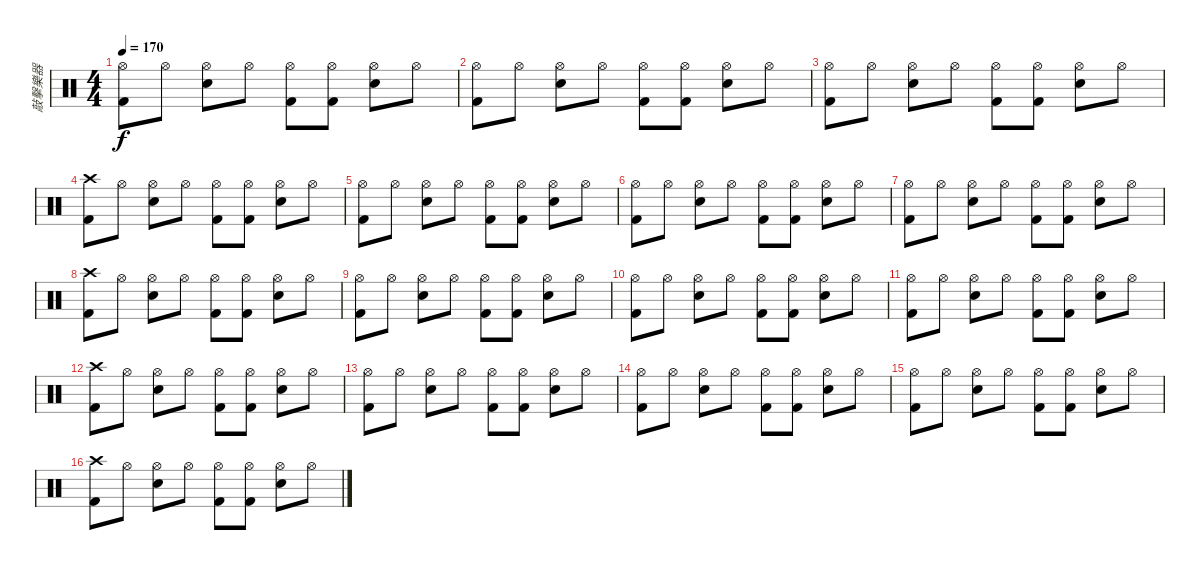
\track ("敲擊樂器" "敲擊樂器") {instrument percussion}
\staff {score}
\articulation defaults
\ts (4 4)
\tempo 170
\clef neutral
\ks c
("Hi-Hat (open)" "Kick (hit) 2").8{dy f} "Hi-Hat (open)".8 ("Hi-Hat (open)" "Snare (hit) 2").8 "Hi-Hat (open)".8 ("Hi-Hat (open)" "Kick (hit) 2").8 ("Hi-Hat (open)" "Kick (hit) 2").8 ("Hi-Hat (open)" "Snare (hit) 2").8 "Hi-Hat (open)".8 |
("Hi-Hat (open)" "Kick (hit) 2").8 "Hi-Hat (open)".8 ("Hi-Hat (open)" "Snare (hit) 2").8 "Hi-Hat (open)".8 ("Hi-Hat (open)" "Kick (hit) 2").8 ("Hi-Hat (open)" "Kick (hit) 2").8 ("Hi-Hat (open)" "Snare (hit) 2").8 "Hi-Hat (open)".8 |
("Hi-Hat (open)" "Kick (hit) 2").8 "Hi-Hat (open)".8 ("Hi-Hat (open)" "Snare (hit) 2").8 "Hi-Hat (open)".8 ("Hi-Hat (open)" "Kick (hit) 2").8 ("Hi-Hat (open)" "Kick (hit) 2").8 ("Hi-Hat (open)" "Snare (hit) 2").8 "Hi-Hat (open)".8 |
("Crash high (hit)" "Kick (hit) 2").8 "Hi-Hat (open)".8 ("Hi-Hat (open)" "Snare (hit) 2").8 "Hi-Hat (open)".8 ("Hi-Hat (open)" "Kick (hit) 2").8 ("Hi-Hat (open)" "Kick (hit) 2").8 ("Hi-Hat (open)" "Snare (hit) 2").8 "Hi-Hat (open)".8 |
("Hi-Hat (open)" "Kick (hit) 2").8 "Hi-Hat (open)".8 ("Hi-Hat (open)" "Snare (hit) 2").8 "Hi-Hat (open)".8 ("Hi-Hat (open)" "Kick (hit) 2").8 ("Hi-Hat (open)" "Kick (hit) 2").8 ("Hi-Hat (open)" "Snare (hit) 2").8 "Hi-Hat (open)".8 |
("Hi-Hat (open)" "Kick (hit) 2").8 "Hi-Hat (open)".8 ("Hi-Hat (open)" "Snare (hit) 2").8 "Hi-Hat (open)".8 ("Hi-Hat (open)" "Kick (hit) 2").8 ("Hi-Hat (open)" "Kick (hit) 2").8 ("Hi-Hat (open)" "Snare (hit) 2").8 "Hi-Hat (open)".8 |
("Hi-Hat (open)" "Kick (hit) 2").8 "Hi-Hat (open)".8 ("Hi-Hat (open)" "Snare (hit) 2").8 "Hi-Hat (open)".8 ("Hi-Hat (open)" "Kick (hit) 2").8 ("Hi-Hat (open)" "Kick (hit) 2").8 ("Hi-Hat (open)" "Snare (hit) 2").8 "Hi-Hat (open)".8 |
("Crash high (hit)" "Kick (hit) 2").8 "Hi-Hat (open)".8 ("Hi-Hat (open)" "Snare (hit) 2").8 "Hi-Hat (open)".8 ("Hi-Hat (open)" "Kick (hit) 2").8 ("Hi-Hat (open)" "Kick (hit) 2").8 ("Hi-Hat (open)" "Snare (hit) 2").8 "Hi-Hat (open)".8 |
("Hi-Hat (open)" "Kick (hit) 2").8 "Hi-Hat (open)".8 ("Hi-Hat (open)" "Snare (hit) 2").8 "Hi-Hat (open)".8 ("Hi-Hat (open)" "Kick (hit) 2").8 ("Hi-Hat (open)" "Kick (hit) 2").8 ("Hi-Hat (open)" "Snare (hit) 2").8 "Hi-Hat (open)".8 |
("Hi-Hat (open)" "Kick (hit) 2").8 "Hi-Hat (open)".8 ("Hi-Hat (open)" "Snare (hit) 2").8 "Hi-Hat (open)".8 ("Hi-Hat (open)" "Kick (hit) 2").8 ("Hi-Hat (open)" "Kick (hit) 2").8 ("Hi-Hat (open)" "Snare (hit) 2").8 "Hi-Hat (open)".8 |
("Hi-Hat (open)" "Kick (hit) 2").8 "Hi-Hat (open)".8 ("Hi-Hat (open)" "Snare (hit) 2").8 "Hi-Hat (open)".8 ("Hi-Hat (open)" "Kick (hit) 2").8 ("Hi-Hat (open)" "Kick (hit) 2").8 ("Hi-Hat (open)" "Snare (hit) 2").8 "Hi-Hat (open)".8 |
("Crash high (hit)" "Kick (hit) 2").8 "Hi-Hat (open)".8 ("Hi-Hat (open)" "Snare (hit) 2").8 "Hi-Hat (open)".8 ("Hi-Hat (open)" "Kick (hit) 2").8 ("Hi-Hat (open)" "Kick (hit) 2").8 ("Hi-Hat (open)" "Snare (hit) 2").8 "Hi-Hat (open)".8 |
("Hi-Hat (open)" "Kick (hit) 2").8 "Hi-Hat (open)".8 ("Hi-Hat (open)" "Snare (hit) 2").8 "Hi-Hat (open)".8 ("Hi-Hat (open)" "Kick (hit) 2").8 ("Hi-Hat (open)" "Kick (hit) 2").8 ("Hi-Hat (open)" "Snare (hit) 2").8 "Hi-Hat (open)".8 |
("Hi-Hat (open)" "Kick (hit) 2").8 "Hi-Hat (open)".8 ("Hi-Hat (open)" "Snare (hit) 2").8 "Hi-Hat (open)".8 ("Hi-Hat (open)" "Kick (hit) 2").8 ("Hi-Hat (open)" "Kick (hit) 2").8 ("Hi-Hat (open)" "Snare (hit) 2").8 "Hi-Hat (open)".8 |
("Hi-Hat (open)" "Kick (hit) 2").8 "Hi-Hat (open)".8 ("Hi-Hat (open)" "Snare (hit) 2").8 "Hi-Hat (open)".8 ("Hi-Hat (open)" "Kick (hit) 2").8 ("Hi-Hat (open)" "Kick (hit) 2").8 ("Hi-Hat (open)" "Snare (hit) 2").8 "Hi-Hat (open)".8 |
("Crash high (hit)" "Kick (hit) 2").8 "Hi-Hat (open)".8 ("Hi-Hat (open)" "Snare (hit) 2").8 "Hi-Hat (open)".8 ("Hi-Hat (open)" "Kick (hit) 2").8 ("Hi-Hat (open)" "Kick (hit) 2").8 ("Hi-Hat (open)" "Snare (hit) 2").8 "Hi-Hat (open)".8
